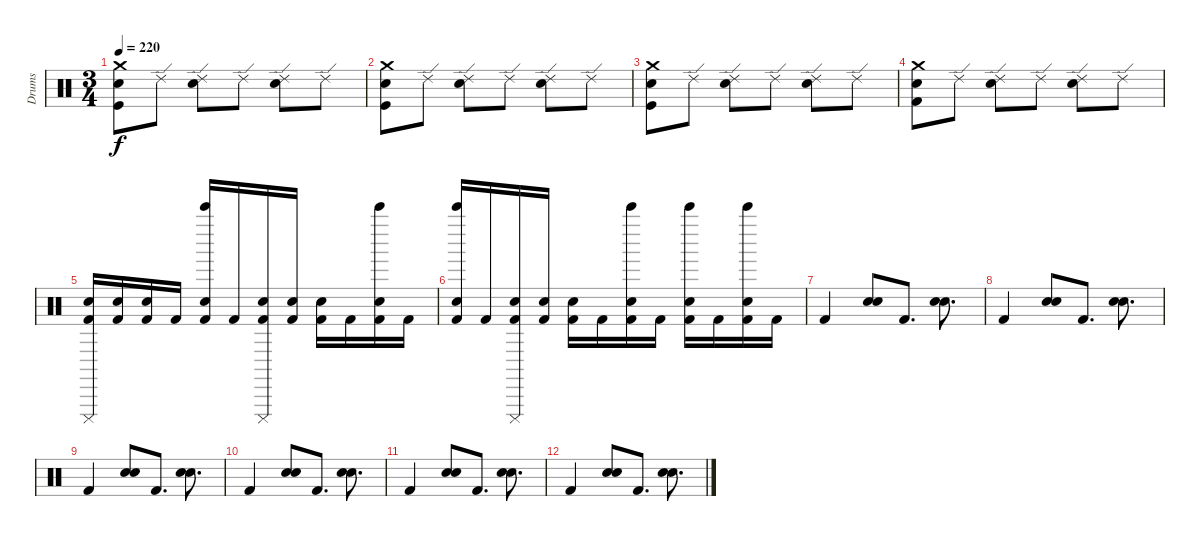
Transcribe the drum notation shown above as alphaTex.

\track ("Drums" "Drums") {instrument percussion}
\staff {score}
\articulation defaults
\ts (3 4)
\tempo 220
\clef neutral
\ks c
("Crash medium (hit)" "Electric Snare (hit)" "Kick (hit)").8{dy f} "Ride (edge) 2".8 ("Ride (edge) 2" "Electric Snare (hit)").8 "Ride (edge) 2".8 ("Ride (edge) 2" "Electric Snare (hit)").8 "Ride (edge) 2".8 |
("Crash medium (hit)" "Electric Snare (hit)" "Kick (hit)").8 "Ride (edge) 2".8 ("Ride (edge) 2" "Electric Snare (hit)").8 "Ride (edge) 2".8 ("Ride (edge) 2" "Electric Snare (hit)").8 "Ride (edge) 2".8 |
("Crash medium (hit)" "Electric Snare (hit)" "Kick (hit)").8 "Ride (edge) 2".8 ("Ride (edge) 2" "Electric Snare (hit)").8 "Ride (edge) 2".8 ("Ride (edge) 2" "Electric Snare (hit)").8 "Ride (edge) 2".8 |
("Crash medium (hit)" "Electric Snare (hit)" "Kick (hit) 2").8 "Ride (edge) 2".8 ("Ride (edge) 2" "Electric Snare (hit)").8 "Ride (edge) 2".8 ("Ride (edge) 2" "Electric Snare (hit)").8 "Ride (edge) 2".8 |
("Cuica (mute)" "Electric Snare (hit)" "Kick (hit) 2").16 ("Electric Snare (hit)" "Kick (hit) 2").16 ("Electric Snare (hit)" "Kick (hit) 2").16 "Kick (hit) 2".16 ("Bell Tree (hit)" "Electric Snare (hit)" "Kick (hit) 2").16 "Kick (hit) 2".16 ("Cuica (mute)" "Electric Snare (hit)" "Kick (hit) 2").16 ("Electric Snare (hit)" "Kick (hit) 2").16 ("Electric Snare (hit)" "Kick (hit) 2").16 "Kick (hit) 2".16 ("Bell Tree (hit)" "Electric Snare (hit)" "Kick (hit) 2").16 "Kick (hit) 2".16 |
("Bell Tree (hit)" "Electric Snare (hit)" "Kick (hit) 2").16 "Kick (hit) 2".16 ("Cuica (mute)" "Electric Snare (hit)" "Kick (hit) 2").16 ("Electric Snare (hit)" "Kick (hit) 2").16 ("Electric Snare (hit)" "Kick (hit) 2").16 "Kick (hit) 2".16 ("Bell Tree (hit)" "Electric Snare (hit)" "Kick (hit) 2").16 "Kick (hit) 2".16 ("Bell Tree (hit)" "Electric Snare (hit)" "Kick (hit) 2").16 "Kick (hit) 2".16 ("Bell Tree (hit)" "Electric Snare (hit)" "Kick (hit) 2").16 "Kick (hit) 2".16 |
"Kick (hit) 2".4 ("Hand Clap (hit)" "Electric Snare (hit)").8 "Kick (hit) 2".8{d} ("Hand Clap (hit)" "Electric Snare (hit)").8{d} |
"Kick (hit) 2".4 ("Hand Clap (hit)" "Electric Snare (hit)").8 "Kick (hit) 2".8{d} ("Hand Clap (hit)" "Electric Snare (hit)").8{d} |
"Kick (hit) 2".4 ("Hand Clap (hit)" "Electric Snare (hit)").8 "Kick (hit) 2".8{d} ("Hand Clap (hit)" "Electric Snare (hit)").8{d} |
"Kick (hit) 2".4 ("Hand Clap (hit)" "Electric Snare (hit)").8 "Kick (hit) 2".8{d} ("Hand Clap (hit)" "Electric Snare (hit)").8{d} |
"Kick (hit) 2".4 ("Hand Clap (hit)" "Electric Snare (hit)").8 "Kick (hit) 2".8{d} ("Hand Clap (hit)" "Electric Snare (hit)").8{d} |
"Kick (hit) 2".4 ("Hand Clap (hit)" "Electric Snare (hit)").8 "Kick (hit) 2".8{d} ("Hand Clap (hit)" "Electric Snare (hit)").8{d}
